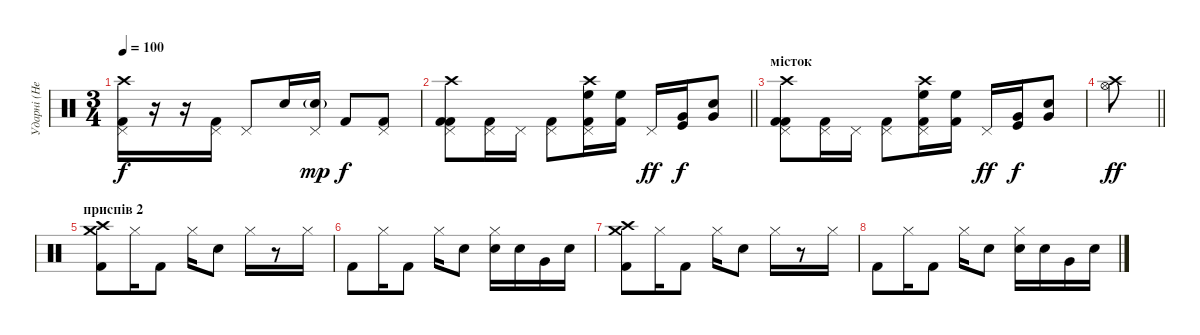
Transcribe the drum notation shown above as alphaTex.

\track ("Ударні (Недашковський)" "Ударні (Не") {instrument percussion}
\staff {score}
\articulation defaults
\ts (3 4)
\tempo 100
\clef neutral
\ks c
("Crash high (hit)" "Pedal Hi-Hat (hit)" "Kick (hit) 2").16{dy f} r.16 r.16 ("Pedal Hi-Hat (hit)" "Kick (hit) 2").16 "Pedal Hi-Hat (hit)".8 "Snare (hit) 2".16 ("Pedal Hi-Hat (hit)" "Electric Snare (hit)"{g}).16{dy mp} "Kick (hit) 2".8{dy f} ("Pedal Hi-Hat (hit)" "Kick (hit) 2").8 |
\barLineRight lightlight
("Crash high (hit)" "Pedal Hi-Hat (hit)" "Kick (hit) 2" "Kick (hit) 2").8 ("Pedal Hi-Hat (hit)" "Kick (hit) 2").16 "Pedal Hi-Hat (hit)".16 ("Pedal Hi-Hat (hit)" "Kick (hit) 2").8 ("Crash high (hit)" "Pedal Hi-Hat (hit)" "Kick (hit) 2" "High Floor Tom (hit)").16 ("Kick (hit) 2" "High Floor Tom (hit)").16 "Pedal Hi-Hat (hit)".16{dy ff} ("Kick (hit)" "Very Low Tom (hit)").16{dy f} ("Snare (hit) 2" "Very Low Tom (hit)").8 |
\section ("" "місток")
("Crash high (hit)" "Pedal Hi-Hat (hit)" "Kick (hit) 2" "Kick (hit) 2").8 ("Pedal Hi-Hat (hit)" "Kick (hit) 2").16 "Pedal Hi-Hat (hit)".16 ("Pedal Hi-Hat (hit)" "Kick (hit) 2").8 ("Crash high (hit)" "Pedal Hi-Hat (hit)" "Kick (hit) 2" "High Floor Tom (hit)").16 ("Kick (hit) 2" "High Floor Tom (hit)").16 "Pedal Hi-Hat (hit)".16{dy ff} ("Kick (hit)" "Very Low Tom (hit)").16{dy f} ("Snare (hit) 2" "Very Low Tom (hit)").8 |
\barLineRight lightlight
("Crash high (hit)" "Hi-Hat (open)").8{dy ff} |
\section ("" "приспів 2")
("Crash high (hit)" "Crash medium (hit)" "Kick (hit) 2").8 "Hi-Hat (closed)".16 "Kick (hit) 2".8 "Hi-Hat (closed)".16 "Snare (hit) 2".8 "Hi-Hat (closed)".16 r.8 "Hi-Hat (closed)".16 |
"Kick (hit) 2".8 "Hi-Hat (closed)".16 "Kick (hit) 2".8 "Hi-Hat (closed)".16 "Snare (hit) 2".8 ("Hi-Hat (closed)" "Snare (hit) 2").16 "Electric Snare (hit)".16 "Very Low Tom (hit)".16 "Snare (hit) 2".16 |
("Crash high (hit)" "Crash medium (hit)" "Kick (hit) 2").8 "Hi-Hat (closed)".16 "Kick (hit) 2".8 "Hi-Hat (closed)".16 "Snare (hit) 2".8 "Hi-Hat (closed)".16 r.8 "Hi-Hat (closed)".16 |
"Kick (hit) 2".8 "Hi-Hat (closed)".16 "Kick (hit) 2".8 "Hi-Hat (closed)".16 "Snare (hit) 2".8 ("Hi-Hat (closed)" "Snare (hit) 2").16 "Electric Snare (hit)".16 "Very Low Tom (hit)".16 "Snare (hit) 2".16
